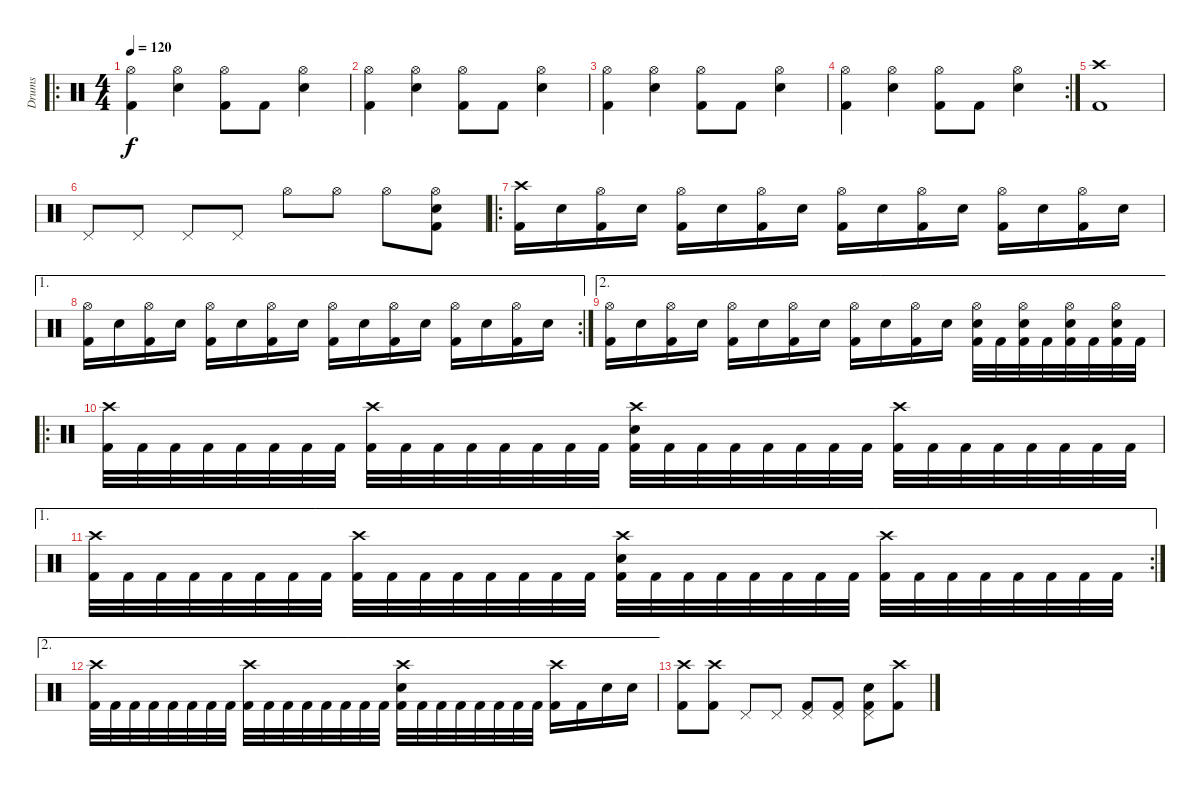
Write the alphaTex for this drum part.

\track ("Drums" "Drums") {instrument percussion}
\staff
\articulation defaults
\ro
\ts (4 4)
\section ("" "")
\tempo 120
\clef neutral
\ks c
("Hi-Hat (open)" "Kick (hit) 2").4{dy f} ("Hi-Hat (open)" "Electric Snare (hit)").4 ("Hi-Hat (open)" "Kick (hit) 2").8 "Kick (hit) 2".8 ("Hi-Hat (open)" "Electric Snare (hit)").4 |
("Hi-Hat (open)" "Kick (hit) 2").4 ("Hi-Hat (open)" "Electric Snare (hit)").4 ("Hi-Hat (open)" "Kick (hit) 2").8 "Kick (hit) 2".8 ("Hi-Hat (open)" "Electric Snare (hit)").4 |
("Hi-Hat (open)" "Kick (hit) 2").4 ("Hi-Hat (open)" "Electric Snare (hit)").4 ("Hi-Hat (open)" "Kick (hit) 2").8 "Kick (hit) 2".8 ("Hi-Hat (open)" "Electric Snare (hit)").4 |
\rc 2
("Hi-Hat (open)" "Kick (hit) 2").4 ("Hi-Hat (open)" "Electric Snare (hit)").4 ("Hi-Hat (open)" "Kick (hit) 2").8 "Kick (hit) 2".8 ("Hi-Hat (open)" "Electric Snare (hit)").4 |
("Crash high (hit)" "Kick (hit) 2").1 |
"Pedal Hi-Hat (hit)".8 "Pedal Hi-Hat (hit)".8 "Pedal Hi-Hat (hit)".8 "Pedal Hi-Hat (hit)".8 "Hi-Hat (open)".8 "Hi-Hat (open)".8 "Hi-Hat (open)".8 ("Hi-Hat (open)" "Electric Snare (hit)" "Kick (hit) 2").8 |
\ro
("Crash high (hit)" "Kick (hit) 2").16 "Electric Snare (hit)".16 ("Hi-Hat (open)" "Kick (hit) 2").16 "Electric Snare (hit)".16 ("Hi-Hat (open)" "Kick (hit) 2").16 "Electric Snare (hit)".16 ("Hi-Hat (open)" "Kick (hit) 2").16 "Electric Snare (hit)".16 ("Hi-Hat (open)" "Kick (hit) 2").16 "Electric Snare (hit)".16 ("Hi-Hat (open)" "Kick (hit) 2").16 "Electric Snare (hit)".16 ("Hi-Hat (open)" "Kick (hit) 2").16 "Electric Snare (hit)".16 ("Hi-Hat (open)" "Kick (hit) 2").16 "Electric Snare (hit)".16 |
\ae 1
\rc 2
("Hi-Hat (open)" "Kick (hit) 2").16 "Electric Snare (hit)".16 ("Hi-Hat (open)" "Kick (hit) 2").16 "Electric Snare (hit)".16 ("Hi-Hat (open)" "Kick (hit) 2").16 "Electric Snare (hit)".16 ("Hi-Hat (open)" "Kick (hit) 2").16 "Electric Snare (hit)".16 ("Hi-Hat (open)" "Kick (hit) 2").16 "Electric Snare (hit)".16 ("Hi-Hat (open)" "Kick (hit) 2").16 "Electric Snare (hit)".16 ("Hi-Hat (open)" "Kick (hit) 2").16 "Electric Snare (hit)".16 ("Hi-Hat (open)" "Kick (hit) 2").16 "Electric Snare (hit)".16 |
\ae 2
("Hi-Hat (open)" "Kick (hit) 2").16 "Electric Snare (hit)".16 ("Hi-Hat (open)" "Kick (hit) 2").16 "Electric Snare (hit)".16 ("Hi-Hat (open)" "Kick (hit) 2").16 "Electric Snare (hit)".16 ("Hi-Hat (open)" "Kick (hit) 2").16 "Electric Snare (hit)".16 ("Hi-Hat (open)" "Kick (hit) 2").16 "Electric Snare (hit)".16 ("Hi-Hat (open)" "Kick (hit) 2").16 "Electric Snare (hit)".16 ("Hi-Hat (open)" "Electric Snare (hit)" "Kick (hit) 2").32 "Kick (hit) 2".32 ("Hi-Hat (open)" "Electric Snare (hit)" "Kick (hit) 2").32 "Kick (hit) 2".32 ("Hi-Hat (open)" "Electric Snare (hit)" "Kick (hit) 2").32 "Kick (hit) 2".32 ("Hi-Hat (open)" "Electric Snare (hit)" "Kick (hit) 2").32 "Kick (hit) 2".32 |
\ro
("Crash high (hit)" "Kick (hit) 2").32 "Kick (hit) 2".32 "Kick (hit) 2".32 "Kick (hit) 2".32 "Kick (hit) 2".32 "Kick (hit) 2".32 "Kick (hit) 2".32 "Kick (hit) 2".32 ("Crash high (hit)" "Kick (hit) 2").32 "Kick (hit) 2".32 "Kick (hit) 2".32 "Kick (hit) 2".32 "Kick (hit) 2".32 "Kick (hit) 2".32 "Kick (hit) 2".32 "Kick (hit) 2".32 ("Crash high (hit)" "Electric Snare (hit)" "Kick (hit) 2").32 "Kick (hit) 2".32 "Kick (hit) 2".32 "Kick (hit) 2".32 "Kick (hit) 2".32 "Kick (hit) 2".32 "Kick (hit) 2".32 "Kick (hit) 2".32 ("Crash high (hit)" "Kick (hit) 2").32 "Kick (hit) 2".32 "Kick (hit) 2".32 "Kick (hit) 2".32 "Kick (hit) 2".32 "Kick (hit) 2".32 "Kick (hit) 2".32 "Kick (hit) 2".32 |
\ae 1
\rc 2
("Crash high (hit)" "Kick (hit) 2").32 "Kick (hit) 2".32 "Kick (hit) 2".32 "Kick (hit) 2".32 "Kick (hit) 2".32 "Kick (hit) 2".32 "Kick (hit) 2".32 "Kick (hit) 2".32 ("Crash high (hit)" "Kick (hit) 2").32 "Kick (hit) 2".32 "Kick (hit) 2".32 "Kick (hit) 2".32 "Kick (hit) 2".32 "Kick (hit) 2".32 "Kick (hit) 2".32 "Kick (hit) 2".32 ("Crash high (hit)" "Electric Snare (hit)" "Kick (hit) 2").32 "Kick (hit) 2".32 "Kick (hit) 2".32 "Kick (hit) 2".32 "Kick (hit) 2".32 "Kick (hit) 2".32 "Kick (hit) 2".32 "Kick (hit) 2".32 ("Crash high (hit)" "Kick (hit) 2").32 "Kick (hit) 2".32 "Kick (hit) 2".32 "Kick (hit) 2".32 "Kick (hit) 2".32 "Kick (hit) 2".32 "Kick (hit) 2".32 "Kick (hit) 2".32 |
\ae 2
("Crash high (hit)" "Kick (hit) 2").32 "Kick (hit) 2".32 "Kick (hit) 2".32 "Kick (hit) 2".32 "Kick (hit) 2".32 "Kick (hit) 2".32 "Kick (hit) 2".32 "Kick (hit) 2".32 ("Crash high (hit)" "Kick (hit) 2").32 "Kick (hit) 2".32 "Kick (hit) 2".32 "Kick (hit) 2".32 "Kick (hit) 2".32 "Kick (hit) 2".32 "Kick (hit) 2".32 "Kick (hit) 2".32 ("Crash high (hit)" "Electric Snare (hit)" "Kick (hit) 2").32 "Kick (hit) 2".32 "Kick (hit) 2".32 "Kick (hit) 2".32 "Kick (hit) 2".32 "Kick (hit) 2".32 "Kick (hit) 2".32 "Kick (hit) 2".32 ("Crash high (hit)" "Kick (hit) 2").16 "Kick (hit) 2".16 "Electric Snare (hit)".16 "Electric Snare (hit)".16 |
("Crash high (hit)" "Kick (hit) 2").8 ("Crash high (hit)" "Kick (hit) 2").8 "Pedal Hi-Hat (hit)".8 "Pedal Hi-Hat (hit)".8 ("Pedal Hi-Hat (hit)" "Kick (hit) 2").8 ("Pedal Hi-Hat (hit)" "Kick (hit) 2").8 ("Pedal Hi-Hat (hit)" "Electric Snare (hit)" "Kick (hit) 2").8 ("Crash high (hit)" "Kick (hit) 2").8
